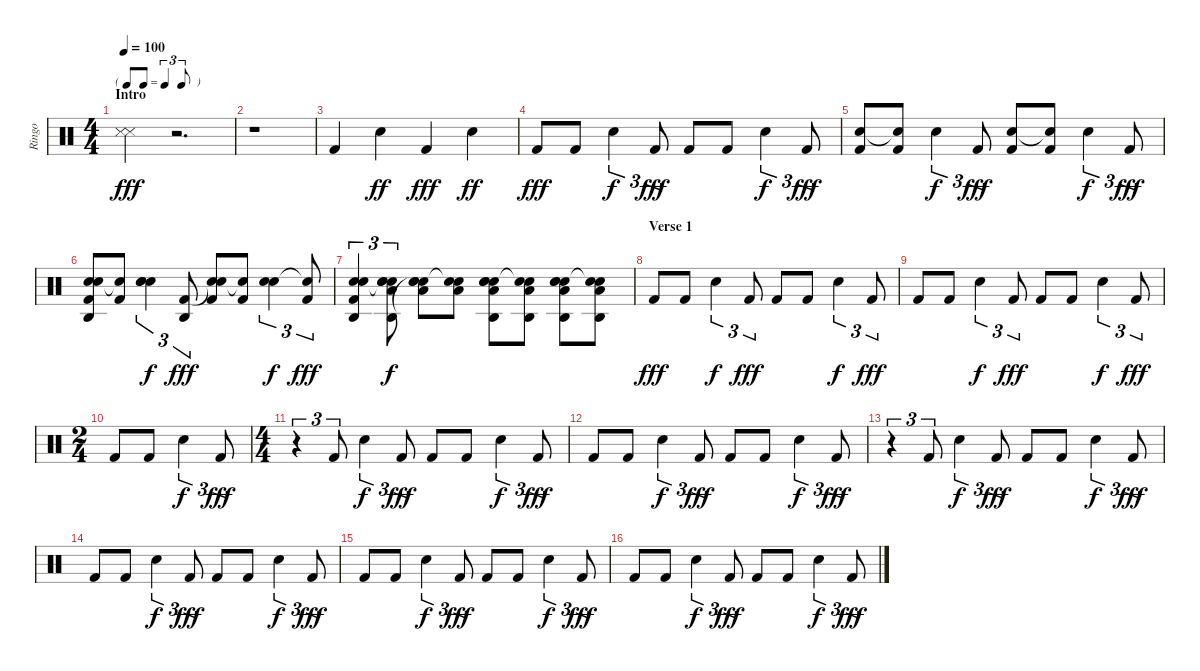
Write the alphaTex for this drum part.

\track ("Ringo" "Ringo") {instrument percussion}
\staff {score}
\articulation defaults
\ts (4 4)
\tf triplet8th
\section ("" "Intro")
\tempo 100
\clef neutral
\ks c
("Snare (side stick) 3" "Snare (side stick) 3").4{dy fff} r.2{d} |
r.1 |
"Kick (hit) 2".4 "Snare (hit) 2".4{dy ff} "Kick (hit) 2".4{dy fff} "Snare (hit) 2".4{dy ff} |
"Kick (hit) 2".8{dy fff} "Kick (hit) 2".8 "Snare (hit) 2".4{tu (3 2) dy f} "Kick (hit) 2".8{tu (3 2) dy fff} "Kick (hit) 2".8 "Kick (hit) 2".8 "Snare (hit) 2".4{tu (3 2) dy f} "Kick (hit) 2".8{tu (3 2) dy fff} |
("Hand Clap (hit)" "Kick (hit) 2").8 ("Snare (hit)"{t} "Kick (hit) 2").8 "Snare (hit) 2".4{tu (3 2) dy f} "Kick (hit) 2".8{tu (3 2) dy fff} ("Hand Clap (hit)" "Kick (hit) 2").8 ("Snare (hit)"{t} "Kick (hit) 2").8 "Snare (hit) 2".4{tu (3 2) dy f} "Kick (hit) 2".8{tu (3 2) dy fff} |
("Hand Clap (hit)" "Agogo high (hit)" "Hand Clap (hit)" "Kick (hit) 2").8 ("Snare (hit)"{t} "Kick (hit) 2").8 ("Hand Clap (hit)" "Hand Clap (hit)" "Snare (hit) 2").4{tu (3 2) dy f} ("Agogo high (hit)" "Kick (hit) 2").8{tu (3 2) dy fff} ("Hand Clap (hit)" "Snare (hit)"{t} "Kick (hit) 2").8 ("Snare (hit)"{t} "Kick (hit) 2").8 ("Hand Clap (hit)" "Snare (hit) 2").4{tu (3 2) dy f} ("Snare (hit)"{t} "Kick (hit) 2").8{tu (3 2) dy fff} |
("Hand Clap (hit)" "Agogo high (hit)" "Kick (hit) 2" "Hand Clap (hit)").4{tu (3 2)} ("Hand Clap (hit)"{t} "Agogo high (hit)" "Snare (hit) 2" "Low Tom (hit)" "Hand Clap (hit)").8{tu (3 2) dy f} ("Hand Clap (hit)" "Snare (hit)"{t} "Snare (hit) 2" "Low Tom (hit)").8 ("Snare (hit)"{t} "Snare (hit) 2" "Low Tom (hit)").8 ("Hand Clap (hit)" "Agogo high (hit)" "Snare (hit) 2" "Low Tom (hit)" "Hand Clap (hit)").8 ("Snare (hit)"{t} "Agogo high (hit)" "Snare (hit) 2" "Low Tom (hit)").8 ("Hand Clap (hit)" "Agogo high (hit)" "Snare (hit) 2" "Low Tom (hit)" "Hand Clap (hit)").8 ("Snare (hit)"{t} "Agogo high (hit)" "Snare (hit) 2" "Low Tom (hit)").8 |
\section ("" "Verse 1")
"Kick (hit) 2".8{dy fff} "Kick (hit) 2".8 "Snare (hit) 2".4{tu (3 2) dy f} "Kick (hit) 2".8{tu (3 2) dy fff} "Kick (hit) 2".8 "Kick (hit) 2".8 "Snare (hit) 2".4{tu (3 2) dy f} "Kick (hit) 2".8{tu (3 2) dy fff} |
"Kick (hit) 2".8 "Kick (hit) 2".8 "Snare (hit) 2".4{tu (3 2) dy f} "Kick (hit) 2".8{tu (3 2) dy fff} "Kick (hit) 2".8 "Kick (hit) 2".8 "Snare (hit) 2".4{tu (3 2) dy f} "Kick (hit) 2".8{tu (3 2) dy fff} |
\ts (2 4)
"Kick (hit) 2".8 "Kick (hit) 2".8 "Snare (hit) 2".4{tu (3 2) dy f} "Kick (hit) 2".8{tu (3 2) dy fff} |
\ts (4 4)
r.4{tu (3 2)} "Kick (hit) 2".8{tu (3 2)} "Snare (hit) 2".4{tu (3 2) dy f} "Kick (hit) 2".8{tu (3 2) dy fff} "Kick (hit) 2".8 "Kick (hit) 2".8 "Snare (hit) 2".4{tu (3 2) dy f} "Kick (hit) 2".8{tu (3 2) dy fff} |
"Kick (hit) 2".8 "Kick (hit) 2".8 "Snare (hit) 2".4{tu (3 2) dy f} "Kick (hit) 2".8{tu (3 2) dy fff} "Kick (hit) 2".8 "Kick (hit) 2".8 "Snare (hit) 2".4{tu (3 2) dy f} "Kick (hit) 2".8{tu (3 2) dy fff} |
r.4{tu (3 2)} "Kick (hit) 2".8{tu (3 2)} "Snare (hit) 2".4{tu (3 2) dy f} "Kick (hit) 2".8{tu (3 2) dy fff} "Kick (hit) 2".8 "Kick (hit) 2".8 "Snare (hit) 2".4{tu (3 2) dy f} "Kick (hit) 2".8{tu (3 2) dy fff} |
"Kick (hit) 2".8 "Kick (hit) 2".8 "Snare (hit) 2".4{tu (3 2) dy f} "Kick (hit) 2".8{tu (3 2) dy fff} "Kick (hit) 2".8 "Kick (hit) 2".8 "Snare (hit) 2".4{tu (3 2) dy f} "Kick (hit) 2".8{tu (3 2) dy fff} |
"Kick (hit) 2".8 "Kick (hit) 2".8 "Snare (hit) 2".4{tu (3 2) dy f} "Kick (hit) 2".8{tu (3 2) dy fff} "Kick (hit) 2".8 "Kick (hit) 2".8 "Snare (hit) 2".4{tu (3 2) dy f} "Kick (hit) 2".8{tu (3 2) dy fff} |
"Kick (hit) 2".8 "Kick (hit) 2".8 "Snare (hit) 2".4{tu (3 2) dy f} "Kick (hit) 2".8{tu (3 2) dy fff} "Kick (hit) 2".8 "Kick (hit) 2".8 "Snare (hit) 2".4{tu (3 2) dy f} "Kick (hit) 2".8{tu (3 2) dy fff}
